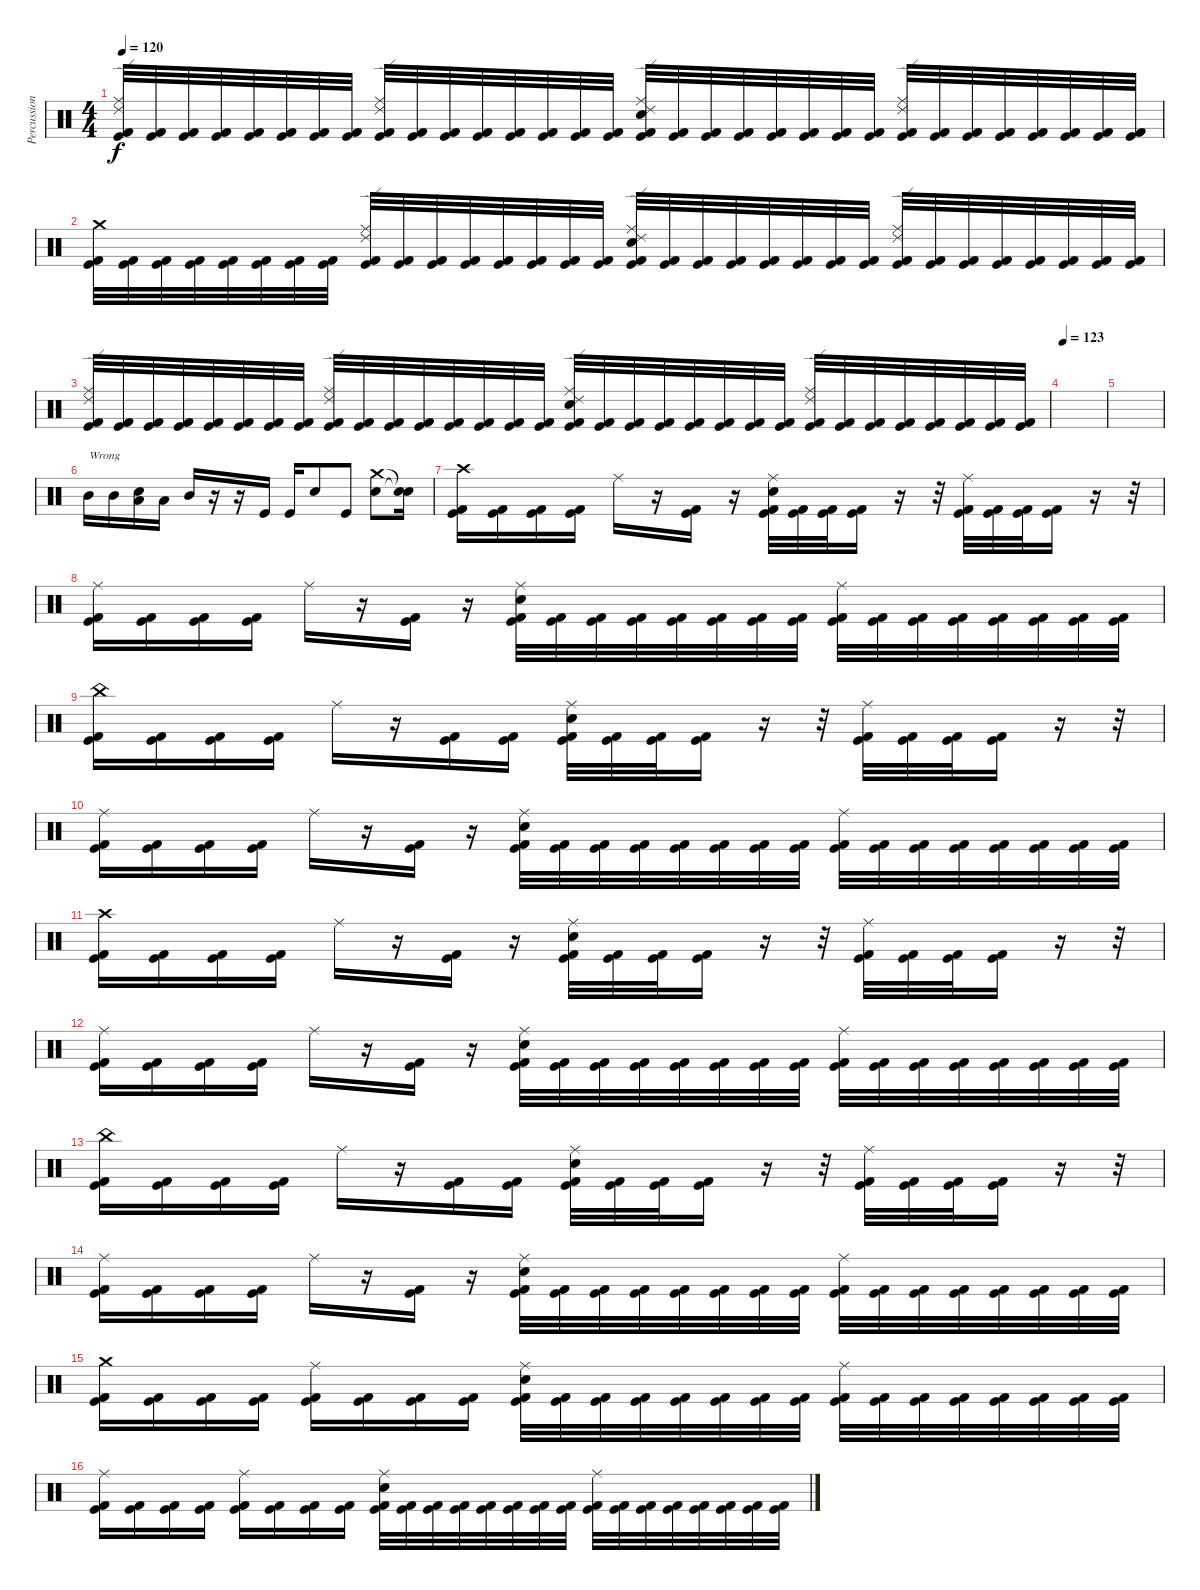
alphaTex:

\track ("Percussion" "Percussion") {instrument percussion}
\staff {score}
\articulation defaults
\ts (4 4)
\tempo 120
\clef neutral
\ks c
("Ride (edge) 2" "Ride (middle)" "Kick (hit) 2" "Kick (hit)").32{dy f} ("Kick (hit) 2" "Kick (hit)").32 ("Kick (hit) 2" "Kick (hit)").32 ("Kick (hit) 2" "Kick (hit)").32 ("Kick (hit) 2" "Kick (hit)").32 ("Kick (hit) 2" "Kick (hit)").32 ("Kick (hit) 2" "Kick (hit)").32 ("Kick (hit) 2" "Kick (hit)").32 ("Ride (edge) 2" "Ride (middle)" "Kick (hit) 2" "Kick (hit)").32 ("Kick (hit) 2" "Kick (hit)").32 ("Kick (hit) 2" "Kick (hit)").32 ("Kick (hit) 2" "Kick (hit)").32 ("Kick (hit) 2" "Kick (hit)").32 ("Kick (hit) 2" "Kick (hit)").32 ("Kick (hit) 2" "Kick (hit)").32 ("Kick (hit) 2" "Kick (hit)").32 ("Ride (edge) 2" "Electric Snare (hit)" "Ride (middle)" "Kick (hit) 2" "Kick (hit)").32 ("Kick (hit) 2" "Kick (hit)").32 ("Kick (hit) 2" "Kick (hit)").32 ("Kick (hit) 2" "Kick (hit)").32 ("Kick (hit) 2" "Kick (hit)").32 ("Kick (hit) 2" "Kick (hit)").32 ("Kick (hit) 2" "Kick (hit)").32 ("Kick (hit) 2" "Kick (hit)").32 ("Ride (edge) 2" "Ride (middle)" "Kick (hit) 2" "Kick (hit)").32 ("Kick (hit) 2" "Kick (hit)").32 ("Kick (hit) 2" "Kick (hit)").32 ("Kick (hit) 2" "Kick (hit)").32 ("Kick (hit) 2" "Kick (hit)").32 ("Kick (hit) 2" "Kick (hit)").32 ("Kick (hit) 2" "Kick (hit)").32 ("Kick (hit) 2" "Kick (hit)").32 |
("Crash medium (hit)" "Kick (hit) 2" "Kick (hit)").32 ("Kick (hit) 2" "Kick (hit)").32 ("Kick (hit) 2" "Kick (hit)").32 ("Kick (hit) 2" "Kick (hit)").32 ("Kick (hit) 2" "Kick (hit)").32 ("Kick (hit) 2" "Kick (hit)").32 ("Kick (hit) 2" "Kick (hit)").32 ("Kick (hit) 2" "Kick (hit)").32 ("Ride (edge) 2" "Ride (middle)" "Kick (hit) 2" "Kick (hit)").32 ("Kick (hit) 2" "Kick (hit)").32 ("Kick (hit) 2" "Kick (hit)").32 ("Kick (hit) 2" "Kick (hit)").32 ("Kick (hit) 2" "Kick (hit)").32 ("Kick (hit) 2" "Kick (hit)").32 ("Kick (hit) 2" "Kick (hit)").32 ("Kick (hit) 2" "Kick (hit)").32 ("Ride (edge) 2" "Electric Snare (hit)" "Ride (middle)" "Kick (hit) 2" "Kick (hit)").32 ("Kick (hit) 2" "Kick (hit)").32 ("Kick (hit) 2" "Kick (hit)").32 ("Kick (hit) 2" "Kick (hit)").32 ("Kick (hit) 2" "Kick (hit)").32 ("Kick (hit) 2" "Kick (hit)").32 ("Kick (hit) 2" "Kick (hit)").32 ("Kick (hit) 2" "Kick (hit)").32 ("Ride (edge) 2" "Ride (middle)" "Kick (hit) 2" "Kick (hit)").32 ("Kick (hit) 2" "Kick (hit)").32 ("Kick (hit) 2" "Kick (hit)").32 ("Kick (hit) 2" "Kick (hit)").32 ("Kick (hit) 2" "Kick (hit)").32 ("Kick (hit) 2" "Kick (hit)").32 ("Kick (hit) 2" "Kick (hit)").32 ("Kick (hit) 2" "Kick (hit)").32 |
("Ride (edge) 2" "Ride (middle)" "Kick (hit) 2" "Kick (hit)").32 ("Kick (hit) 2" "Kick (hit)").32 ("Kick (hit) 2" "Kick (hit)").32 ("Kick (hit) 2" "Kick (hit)").32 ("Kick (hit) 2" "Kick (hit)").32 ("Kick (hit) 2" "Kick (hit)").32 ("Kick (hit) 2" "Kick (hit)").32 ("Kick (hit) 2" "Kick (hit)").32 ("Ride (edge) 2" "Ride (middle)" "Kick (hit) 2" "Kick (hit)").32 ("Kick (hit) 2" "Kick (hit)").32 ("Kick (hit) 2" "Kick (hit)").32 ("Kick (hit) 2" "Kick (hit)").32 ("Kick (hit) 2" "Kick (hit)").32 ("Kick (hit) 2" "Kick (hit)").32 ("Kick (hit) 2" "Kick (hit)").32 ("Kick (hit) 2" "Kick (hit)").32 ("Ride (edge) 2" "Electric Snare (hit)" "Ride (middle)" "Kick (hit) 2" "Kick (hit)").32 ("Kick (hit) 2" "Kick (hit)").32 ("Kick (hit) 2" "Kick (hit)").32 ("Kick (hit) 2" "Kick (hit)").32 ("Kick (hit) 2" "Kick (hit)").32 ("Kick (hit) 2" "Kick (hit)").32 ("Kick (hit) 2" "Kick (hit)").32 ("Kick (hit) 2" "Kick (hit)").32 ("Ride (edge) 2" "Ride (middle)" "Kick (hit) 2" "Kick (hit)").32 ("Kick (hit) 2" "Kick (hit)").32 ("Kick (hit) 2" "Kick (hit)").32 ("Kick (hit) 2" "Kick (hit)").32 ("Kick (hit) 2" "Kick (hit)").32 ("Kick (hit) 2" "Kick (hit)").32 ("Kick (hit) 2" "Kick (hit)").32 ("Kick (hit) 2" "Kick (hit)").32 |
\tempo 123
|
|
"Mid Tom (hit)".16{txt "Wrong"} "Mid Tom (hit)".16 ("Low Tom (hit)" "Electric Snare (hit)").16 "Low Tom (hit)".16 "Mid Tom (hit)".16 r.16 r.16 "Kick (hit)".16 "Kick (hit)".16 "Electric Snare (hit)".8 "Kick (hit)".8 ("Crash medium (hit)" "Electric Snare (hit)").8 ("Snare (hit)"{t} "Snare (hit)"{t}).16 |
("Crash high (hit)" "Kick (hit)" "Kick (hit) 2").16 ("Kick (hit)" "Kick (hit) 2").16 ("Kick (hit)" "Kick (hit) 2").16 ("Kick (hit)" "Kick (hit) 2").16 "Ride (middle)".16 r.16 ("Kick (hit)" "Kick (hit) 2").16 r.16 ("Ride (middle)" "Kick (hit)" "Kick (hit) 2" "Electric Snare (hit)").32 ("Kick (hit)" "Kick (hit) 2").32 ("Kick (hit)" "Kick (hit) 2").32 ("Kick (hit)" "Kick (hit) 2").16 r.16 r.32 ("Ride (middle)" "Kick (hit)" "Kick (hit) 2").32 ("Kick (hit)" "Kick (hit) 2").32 ("Kick (hit)" "Kick (hit) 2").32 ("Kick (hit)" "Kick (hit) 2").16 r.16 r.32 |
("Ride (middle)" "Kick (hit)" "Kick (hit) 2").16 ("Kick (hit)" "Kick (hit) 2").16 ("Kick (hit)" "Kick (hit) 2").16 ("Kick (hit)" "Kick (hit) 2").16 "Ride (middle)".16 r.16 ("Kick (hit)" "Kick (hit) 2").16 r.16 ("Ride (middle)" "Kick (hit)" "Kick (hit) 2" "Electric Snare (hit)").32 ("Kick (hit)" "Kick (hit) 2").32 ("Kick (hit)" "Kick (hit) 2").32 ("Kick (hit)" "Kick (hit) 2").32 ("Kick (hit)" "Kick (hit) 2").32 ("Kick (hit)" "Kick (hit) 2").32 ("Kick (hit)" "Kick (hit) 2").32 ("Kick (hit)" "Kick (hit) 2").32 ("Ride (middle)" "Kick (hit)" "Kick (hit) 2").32 ("Kick (hit)" "Kick (hit) 2").32 ("Kick (hit)" "Kick (hit) 2").32 ("Kick (hit)" "Kick (hit) 2").32 ("Kick (hit)" "Kick (hit) 2").32 ("Kick (hit)" "Kick (hit) 2").32 ("Kick (hit)" "Kick (hit) 2").32 ("Kick (hit)" "Kick (hit) 2").32 |
("China (hit)" "Kick (hit)" "Kick (hit) 2").16 ("Kick (hit)" "Kick (hit) 2").16 ("Kick (hit)" "Kick (hit) 2").16 ("Kick (hit)" "Kick (hit) 2").16 "Ride (middle)".16 r.16 ("Kick (hit)" "Kick (hit) 2").16 ("Kick (hit)" "Kick (hit) 2").16 ("Ride (middle)" "Kick (hit)" "Kick (hit) 2" "Electric Snare (hit)").32 ("Kick (hit)" "Kick (hit) 2").32 ("Kick (hit)" "Kick (hit) 2").32 ("Kick (hit)" "Kick (hit) 2").16 r.16 r.32 ("Ride (middle)" "Kick (hit)" "Kick (hit) 2").32 ("Kick (hit)" "Kick (hit) 2").32 ("Kick (hit)" "Kick (hit) 2").32 ("Kick (hit)" "Kick (hit) 2").16 r.16 r.32 |
("Ride (middle)" "Kick (hit)" "Kick (hit) 2").16 ("Kick (hit)" "Kick (hit) 2").16 ("Kick (hit)" "Kick (hit) 2").16 ("Kick (hit)" "Kick (hit) 2").16 "Ride (middle)".16 r.16 ("Kick (hit)" "Kick (hit) 2").16 r.16 ("Ride (middle)" "Kick (hit)" "Kick (hit) 2" "Electric Snare (hit)").32 ("Kick (hit)" "Kick (hit) 2").32 ("Kick (hit)" "Kick (hit) 2").32 ("Kick (hit)" "Kick (hit) 2").32 ("Kick (hit)" "Kick (hit) 2").32 ("Kick (hit)" "Kick (hit) 2").32 ("Kick (hit)" "Kick (hit) 2").32 ("Kick (hit)" "Kick (hit) 2").32 ("Ride (middle)" "Kick (hit)" "Kick (hit) 2").32 ("Kick (hit)" "Kick (hit) 2").32 ("Kick (hit)" "Kick (hit) 2").32 ("Kick (hit)" "Kick (hit) 2").32 ("Kick (hit)" "Kick (hit) 2").32 ("Kick (hit)" "Kick (hit) 2").32 ("Kick (hit)" "Kick (hit) 2").32 ("Kick (hit)" "Kick (hit) 2").32 |
("Crash high (hit)" "Kick (hit)" "Kick (hit) 2").16 ("Kick (hit)" "Kick (hit) 2").16 ("Kick (hit)" "Kick (hit) 2").16 ("Kick (hit)" "Kick (hit) 2").16 "Ride (middle)".16 r.16 ("Kick (hit)" "Kick (hit) 2").16 r.16 ("Ride (middle)" "Kick (hit)" "Kick (hit) 2" "Electric Snare (hit)").32 ("Kick (hit)" "Kick (hit) 2").32 ("Kick (hit)" "Kick (hit) 2").32 ("Kick (hit)" "Kick (hit) 2").16 r.16 r.32 ("Ride (middle)" "Kick (hit)" "Kick (hit) 2").32 ("Kick (hit)" "Kick (hit) 2").32 ("Kick (hit)" "Kick (hit) 2").32 ("Kick (hit)" "Kick (hit) 2").16 r.16 r.32 |
("Ride (middle)" "Kick (hit)" "Kick (hit) 2").16 ("Kick (hit)" "Kick (hit) 2").16 ("Kick (hit)" "Kick (hit) 2").16 ("Kick (hit)" "Kick (hit) 2").16 "Ride (middle)".16 r.16 ("Kick (hit)" "Kick (hit) 2").16 r.16 ("Ride (middle)" "Kick (hit)" "Kick (hit) 2" "Electric Snare (hit)").32 ("Kick (hit)" "Kick (hit) 2").32 ("Kick (hit)" "Kick (hit) 2").32 ("Kick (hit)" "Kick (hit) 2").32 ("Kick (hit)" "Kick (hit) 2").32 ("Kick (hit)" "Kick (hit) 2").32 ("Kick (hit)" "Kick (hit) 2").32 ("Kick (hit)" "Kick (hit) 2").32 ("Ride (middle)" "Kick (hit)" "Kick (hit) 2").32 ("Kick (hit)" "Kick (hit) 2").32 ("Kick (hit)" "Kick (hit) 2").32 ("Kick (hit)" "Kick (hit) 2").32 ("Kick (hit)" "Kick (hit) 2").32 ("Kick (hit)" "Kick (hit) 2").32 ("Kick (hit)" "Kick (hit) 2").32 ("Kick (hit)" "Kick (hit) 2").32 |
("China (hit)" "Kick (hit)" "Kick (hit) 2").16 ("Kick (hit)" "Kick (hit) 2").16 ("Kick (hit)" "Kick (hit) 2").16 ("Kick (hit)" "Kick (hit) 2").16 "Ride (middle)".16 r.16 ("Kick (hit)" "Kick (hit) 2").16 ("Kick (hit)" "Kick (hit) 2").16 ("Ride (middle)" "Kick (hit)" "Kick (hit) 2" "Electric Snare (hit)").32 ("Kick (hit)" "Kick (hit) 2").32 ("Kick (hit)" "Kick (hit) 2").32 ("Kick (hit)" "Kick (hit) 2").16 r.16 r.32 ("Ride (middle)" "Kick (hit)" "Kick (hit) 2").32 ("Kick (hit)" "Kick (hit) 2").32 ("Kick (hit)" "Kick (hit) 2").32 ("Kick (hit)" "Kick (hit) 2").16 r.16 r.32 |
("Ride (middle)" "Kick (hit)" "Kick (hit) 2").16 ("Kick (hit)" "Kick (hit) 2").16 ("Kick (hit)" "Kick (hit) 2").16 ("Kick (hit)" "Kick (hit) 2").16 "Ride (middle)".16 r.16 ("Kick (hit)" "Kick (hit) 2").16 r.16 ("Ride (middle)" "Kick (hit)" "Kick (hit) 2" "Electric Snare (hit)").32 ("Kick (hit)" "Kick (hit) 2").32 ("Kick (hit)" "Kick (hit) 2").32 ("Kick (hit)" "Kick (hit) 2").32 ("Kick (hit)" "Kick (hit) 2").32 ("Kick (hit)" "Kick (hit) 2").32 ("Kick (hit)" "Kick (hit) 2").32 ("Kick (hit)" "Kick (hit) 2").32 ("Ride (middle)" "Kick (hit)" "Kick (hit) 2").32 ("Kick (hit)" "Kick (hit) 2").32 ("Kick (hit)" "Kick (hit) 2").32 ("Kick (hit)" "Kick (hit) 2").32 ("Kick (hit)" "Kick (hit) 2").32 ("Kick (hit)" "Kick (hit) 2").32 ("Kick (hit)" "Kick (hit) 2").32 ("Kick (hit)" "Kick (hit) 2").32 |
("Crash medium (hit)" "Kick (hit)" "Kick (hit) 2").16 ("Kick (hit)" "Kick (hit) 2").16 ("Kick (hit)" "Kick (hit) 2").16 ("Kick (hit)" "Kick (hit) 2").16 ("Ride (middle)" "Kick (hit)" "Kick (hit) 2").16 ("Kick (hit)" "Kick (hit) 2").16 ("Kick (hit)" "Kick (hit) 2").16 ("Kick (hit)" "Kick (hit) 2").16 ("Ride (middle)" "Kick (hit)" "Kick (hit) 2" "Electric Snare (hit)").32 ("Kick (hit)" "Kick (hit) 2").32 ("Kick (hit)" "Kick (hit) 2").32 ("Kick (hit)" "Kick (hit) 2").32 ("Kick (hit)" "Kick (hit) 2").32 ("Kick (hit)" "Kick (hit) 2").32 ("Kick (hit)" "Kick (hit) 2").32 ("Kick (hit)" "Kick (hit) 2").32 ("Ride (middle)" "Kick (hit)" "Kick (hit) 2").32 ("Kick (hit)" "Kick (hit) 2").32 ("Kick (hit)" "Kick (hit) 2").32 ("Kick (hit)" "Kick (hit) 2").32 ("Kick (hit)" "Kick (hit) 2").32 ("Kick (hit)" "Kick (hit) 2").32 ("Kick (hit)" "Kick (hit) 2").32 ("Kick (hit)" "Kick (hit) 2").32 |
("Ride (middle)" "Kick (hit)" "Kick (hit) 2").16 ("Kick (hit)" "Kick (hit) 2").16 ("Kick (hit)" "Kick (hit) 2").16 ("Kick (hit)" "Kick (hit) 2").16 ("Ride (middle)" "Kick (hit)" "Kick (hit) 2").16 ("Kick (hit)" "Kick (hit) 2").16 ("Kick (hit)" "Kick (hit) 2").16 ("Kick (hit)" "Kick (hit) 2").16 ("Ride (middle)" "Kick (hit)" "Kick (hit) 2" "Electric Snare (hit)").32 ("Kick (hit)" "Kick (hit) 2").32 ("Kick (hit)" "Kick (hit) 2").32 ("Kick (hit)" "Kick (hit) 2").32 ("Kick (hit)" "Kick (hit) 2").32 ("Kick (hit)" "Kick (hit) 2").32 ("Kick (hit)" "Kick (hit) 2").32 ("Kick (hit)" "Kick (hit) 2").32 ("Ride (middle)" "Kick (hit)" "Kick (hit) 2").32 ("Kick (hit)" "Kick (hit) 2").32 ("Kick (hit)" "Kick (hit) 2").32 ("Kick (hit)" "Kick (hit) 2").32 ("Kick (hit)" "Kick (hit) 2").32 ("Kick (hit)" "Kick (hit) 2").32 ("Kick (hit)" "Kick (hit) 2").32 ("Kick (hit)" "Kick (hit) 2").32
